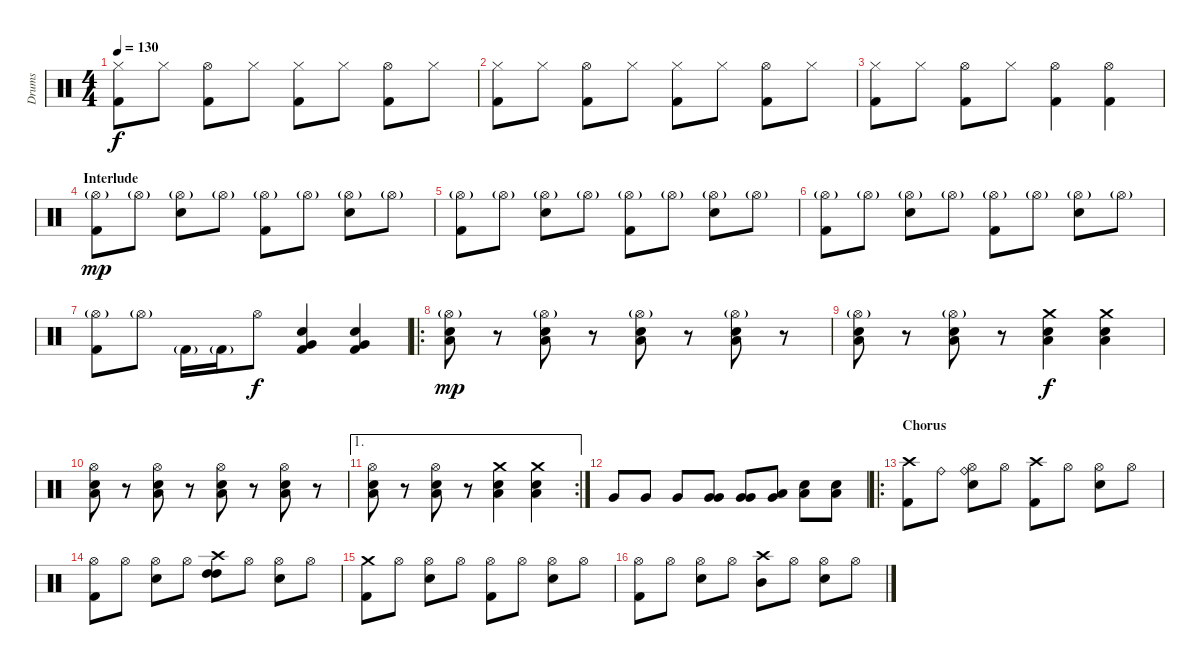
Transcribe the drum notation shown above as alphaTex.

\track ("Drums" "Drums") {instrument percussion}
\staff {score}
\articulation defaults
\ts (4 4)
\tempo 130
\clef neutral
\ks c
("Kick (hit) 2" "Hi-Hat (closed)").8{dy f} "Hi-Hat (closed)".8 ("Kick (hit) 2" "Hi-Hat (open)").8 "Hi-Hat (closed)".8 ("Kick (hit) 2" "Hi-Hat (closed)").8 "Hi-Hat (closed)".8 ("Kick (hit) 2" "Hi-Hat (open)").8 "Hi-Hat (closed)".8 |
("Kick (hit) 2" "Hi-Hat (closed)").8 "Hi-Hat (closed)".8 ("Kick (hit) 2" "Hi-Hat (open)").8 "Hi-Hat (closed)".8 ("Kick (hit) 2" "Hi-Hat (closed)").8 "Hi-Hat (closed)".8 ("Kick (hit) 2" "Hi-Hat (open)").8 "Hi-Hat (closed)".8 |
("Kick (hit) 2" "Hi-Hat (closed)").8 "Hi-Hat (closed)".8 ("Kick (hit) 2" "Hi-Hat (open)").8 "Hi-Hat (closed)".8 ("Kick (hit) 2" "Hi-Hat (open)").4 ("Kick (hit) 2" "Hi-Hat (open)").4 |
\section ("" "Interlude")
("Hi-Hat (open)"{g} "Kick (hit) 2").8{dy mp} "Hi-Hat (open)"{g}.8 ("Hi-Hat (open)"{g} "Snare (hit) 2").8 "Hi-Hat (open)"{g}.8 ("Hi-Hat (open)"{g} "Kick (hit) 2").8 "Hi-Hat (open)"{g}.8 ("Hi-Hat (open)"{g} "Snare (hit) 2").8 "Hi-Hat (open)"{g}.8 |
("Hi-Hat (open)"{g} "Kick (hit) 2").8 "Hi-Hat (open)"{g}.8 ("Hi-Hat (open)"{g} "Snare (hit) 2").8 "Hi-Hat (open)"{g}.8 ("Hi-Hat (open)"{g} "Kick (hit) 2").8 "Hi-Hat (open)"{g}.8 ("Hi-Hat (open)"{g} "Snare (hit) 2").8 "Hi-Hat (open)"{g}.8 |
("Hi-Hat (open)"{g} "Kick (hit) 2").8 "Hi-Hat (open)"{g}.8 ("Hi-Hat (open)"{g} "Snare (hit) 2").8 "Hi-Hat (open)"{g}.8 ("Hi-Hat (open)"{g} "Kick (hit) 2").8 "Hi-Hat (open)"{g}.8 ("Hi-Hat (open)"{g} "Snare (hit) 2").8 "Hi-Hat (open)"{g}.8 |
("Hi-Hat (open)"{g} "Kick (hit) 2").8 "Hi-Hat (open)"{g}.8 "Kick (hit) 2"{g}.16 "Kick (hit) 2"{g}.16 "Hi-Hat (open)".8{dy f} ("Snare (hit) 2" "Kick (hit) 2" "Very Low Tom (hit)").4 ("Snare (hit) 2" "Kick (hit) 2" "Very Low Tom (hit)").4 |
\ro
("Hi-Hat (open)"{g} "Low Tom (hit)" "Snare (hit) 2").8{dy mp} r.8 ("Hi-Hat (open)"{g} "Low Tom (hit)" "Snare (hit) 2").8 r.8 ("Hi-Hat (open)"{g} "Low Tom (hit)" "Snare (hit) 2").8 r.8 ("Hi-Hat (open)"{g} "Low Tom (hit)" "Snare (hit) 2").8 r.8 |
("Hi-Hat (open)"{g} "Low Tom (hit)" "Snare (hit) 2").8 r.8 ("Hi-Hat (open)"{g} "Low Tom (hit)" "Snare (hit) 2").8 r.8 ("Crash medium (hit)" "Low Tom (hit)" "Snare (hit) 2").4{dy f} ("Crash medium (hit)" "Snare (hit) 2" "Low Tom (hit)").4 |
("Hi-Hat (open)" "Low Tom (hit)" "Snare (hit) 2").8 r.8 ("Hi-Hat (open)" "Low Tom (hit)" "Snare (hit) 2").8 r.8 ("Hi-Hat (open)" "Low Tom (hit)" "Snare (hit) 2").8 r.8 ("Hi-Hat (open)" "Low Tom (hit)" "Snare (hit) 2").8 r.8 |
\ae 1
\rc 2
("Hi-Hat (open)" "Low Tom (hit)" "Snare (hit) 2").8 r.8 ("Hi-Hat (open)" "Low Tom (hit)" "Snare (hit) 2").8 r.8 ("Crash medium (hit)" "Low Tom (hit)" "Snare (hit) 2").4 ("Crash medium (hit)" "Snare (hit) 2" "Low Tom (hit)").4 |
"Very Low Tom (hit)".8 "Very Low Tom (hit)".8 "Very Low Tom (hit)".8 ("Very Low Tom (hit)" "Very Low Tom (hit)").8 ("Very Low Tom (hit)" "Very Low Tom (hit)").8 ("Low Tom (hit)" "Very Low Tom (hit)").8 ("Low Tom (hit)" "Snare (hit) 2").8 ("Low Tom (hit)" "Snare (hit) 2").8 |
\ro
\section ("" "Chorus")
("Crash high (hit)" "Kick (hit) 2").8 "Ride (bell)".8 ("Hi-Hat (open)" "Ride (bell)" "Electric Snare (hit)").8 "Hi-Hat (open)".8 ("Crash high (hit)" "Kick (hit) 2").8 "Hi-Hat (open)".8 ("Hi-Hat (open)" "Electric Snare (hit)").8 "Hi-Hat (open)".8 |
("Hi-Hat (open)" "Kick (hit) 2").8 "Hi-Hat (open)".8 ("Hi-Hat (open)" "Electric Snare (hit)").8 "Hi-Hat (open)".8 ("Crash high (hit)" "High Tom (hit)" "High Tom (hit)").8 "Hi-Hat (open)".8 ("Hi-Hat (open)" "Electric Snare (hit)").8 "Hi-Hat (open)".8 |
("Crash medium (hit)" "Kick (hit) 2").8 "Hi-Hat (open)".8 ("Hi-Hat (open)" "Electric Snare (hit)").8 "Hi-Hat (open)".8 ("Hi-Hat (open)" "Kick (hit) 2").8 "Hi-Hat (open)".8 ("Hi-Hat (open)" "Electric Snare (hit)").8 "Hi-Hat (open)".8 |
("Hi-Hat (open)" "Kick (hit) 2").8 "Hi-Hat (open)".8 ("Hi-Hat (open)" "Electric Snare (hit)").8 "Hi-Hat (open)".8 ("Crash high (hit)" "Mid Tom (hit)").8 "Hi-Hat (open)".8 ("Hi-Hat (open)" "Electric Snare (hit)").8 "Hi-Hat (open)".8
